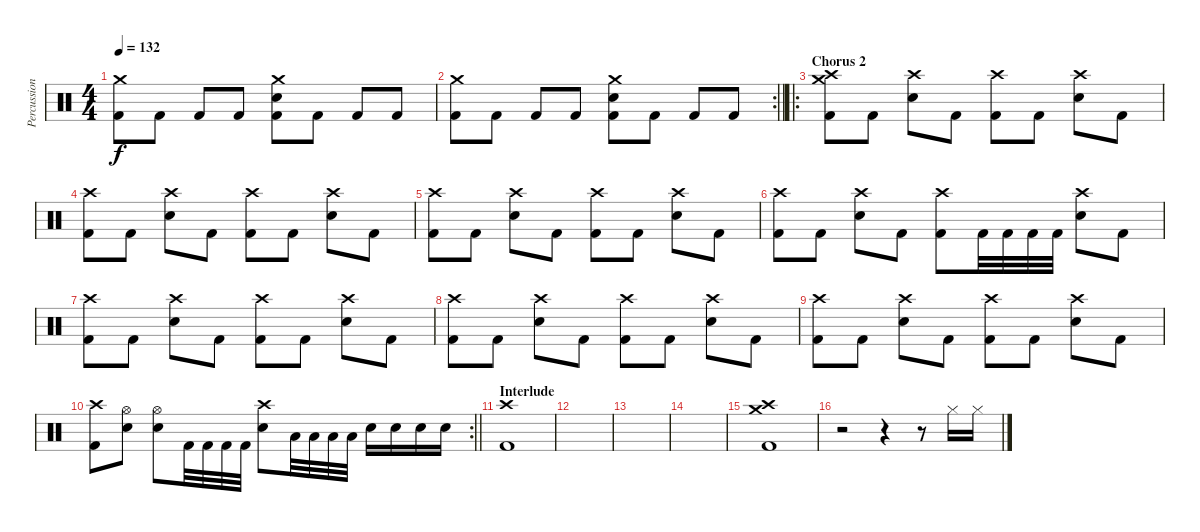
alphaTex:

\track ("Percussion" "Percussion") {instrument percussion}
\staff {score}
\articulation defaults
\ts (4 4)
\section ("" "")
\tempo 132
\clef neutral
\ks c
("Crash medium (hit)" "Kick (hit) 2").8{dy f} "Kick (hit) 2".8 "Kick (hit) 2".8 "Kick (hit) 2".8 ("Crash medium (hit)" "Electric Snare (hit)" "Kick (hit) 2").8 "Kick (hit) 2".8 "Kick (hit) 2".8 "Kick (hit) 2".8 |
\rc 2
\barLineRight lightlight
("Crash medium (hit)" "Kick (hit) 2").8 "Kick (hit) 2".8 "Kick (hit) 2".8 "Kick (hit) 2".8 ("Crash medium (hit)" "Electric Snare (hit)" "Kick (hit) 2").8 "Kick (hit) 2".8 "Kick (hit) 2".8 "Kick (hit) 2".8 |
\ro
\section ("" "Chorus 2")
("Crash medium (hit)" "Crash high (hit)" "Kick (hit) 2").8 "Kick (hit) 2".8 ("Crash high (hit)" "Electric Snare (hit)").8 "Kick (hit) 2".8 ("Crash high (hit)" "Kick (hit) 2").8 "Kick (hit) 2".8 ("Crash high (hit)" "Electric Snare (hit)").8 "Kick (hit) 2".8 |
("Crash high (hit)" "Kick (hit) 2").8 "Kick (hit) 2".8 ("Crash high (hit)" "Electric Snare (hit)").8 "Kick (hit) 2".8 ("Crash high (hit)" "Kick (hit) 2").8 "Kick (hit) 2".8 ("Crash high (hit)" "Electric Snare (hit)").8 "Kick (hit) 2".8 |
("Crash high (hit)" "Kick (hit) 2").8 "Kick (hit) 2".8 ("Crash high (hit)" "Electric Snare (hit)").8 "Kick (hit) 2".8 ("Crash high (hit)" "Kick (hit) 2").8 "Kick (hit) 2".8 ("Crash high (hit)" "Electric Snare (hit)").8 "Kick (hit) 2".8 |
("Crash high (hit)" "Kick (hit) 2").8 "Kick (hit) 2".8 ("Crash high (hit)" "Electric Snare (hit)").8 "Kick (hit) 2".8 ("Crash high (hit)" "Kick (hit) 2").8 "Kick (hit) 2".32 "Kick (hit) 2".32 "Kick (hit) 2".32 "Kick (hit) 2".32 ("Crash high (hit)" "Electric Snare (hit)").8 "Kick (hit) 2".8 |
("Crash high (hit)" "Kick (hit) 2").8 "Kick (hit) 2".8 ("Crash high (hit)" "Electric Snare (hit)").8 "Kick (hit) 2".8 ("Crash high (hit)" "Kick (hit) 2").8 "Kick (hit) 2".8 ("Crash high (hit)" "Electric Snare (hit)").8 "Kick (hit) 2".8 |
("Crash high (hit)" "Kick (hit) 2").8 "Kick (hit) 2".8 ("Crash high (hit)" "Electric Snare (hit)").8 "Kick (hit) 2".8 ("Crash high (hit)" "Kick (hit) 2").8 "Kick (hit) 2".8 ("Crash high (hit)" "Electric Snare (hit)").8 "Kick (hit) 2".8 |
("Crash high (hit)" "Kick (hit) 2").8 "Kick (hit) 2".8 ("Crash high (hit)" "Electric Snare (hit)").8 "Kick (hit) 2".8 ("Crash high (hit)" "Kick (hit) 2").8 "Kick (hit) 2".8 ("Crash high (hit)" "Electric Snare (hit)").8 "Kick (hit) 2".8 |
\rc 2
\barLineRight lightlight
("Crash high (hit)" "Kick (hit) 2").8 ("Hi-Hat (open)" "Electric Snare (hit)").8 ("Hi-Hat (open)" "Electric Snare (hit)").8 "Kick (hit) 2".32 "Kick (hit) 2".32 "Kick (hit) 2".32 "Kick (hit) 2".32 ("Crash high (hit)" "Electric Snare (hit)").8 "Low Tom (hit)".32 "Low Tom (hit)".32 "Low Tom (hit)".32 "Low Tom (hit)".32 "Electric Snare (hit)".16 "Electric Snare (hit)".16 "Electric Snare (hit)".16 "Electric Snare (hit)".16 |
\section ("" "Interlude")
("Crash high (hit)" "Kick (hit) 2").1 |
|
|
|
("Crash medium (hit)" "Crash high (hit)" "Kick (hit) 2").1 |
r.2 r.4 r.8 "Hi-Hat (closed)".16 "Hi-Hat (closed)".16
